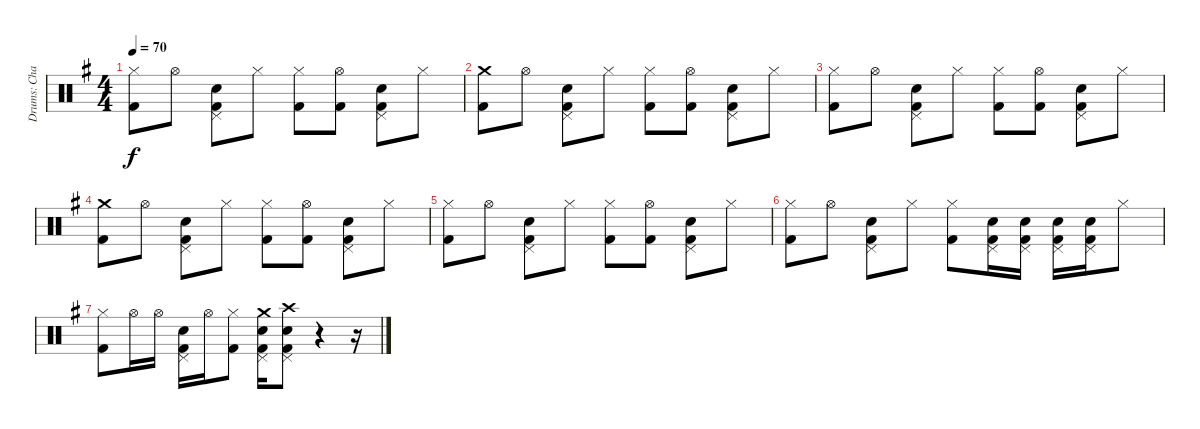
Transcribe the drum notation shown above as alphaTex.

\track ("Drums: Charlie Allen Martin" "Drums: Cha") {instrument percussion}
\staff {score}
\articulation defaults
\ts (4 4)
\tempo 70
\clef neutral
\ks g
("Hi-Hat (closed)" "Kick (hit) 2").8{dy f} "Hi-Hat (open)".8 ("Pedal Hi-Hat (hit)" "Snare (hit) 2" "Kick (hit) 2").8 "Hi-Hat (closed)".8 ("Hi-Hat (closed)" "Kick (hit) 2").8 ("Hi-Hat (open)" "Kick (hit) 2").8 ("Pedal Hi-Hat (hit)" "Snare (hit) 2" "Kick (hit) 2").8 "Hi-Hat (closed)".8 |
("Crash medium (hit)" "Kick (hit) 2").8 "Hi-Hat (open)".8 ("Pedal Hi-Hat (hit)" "Snare (hit) 2" "Kick (hit) 2").8 "Hi-Hat (closed)".8 ("Hi-Hat (closed)" "Kick (hit) 2").8 ("Hi-Hat (open)" "Kick (hit) 2").8 ("Pedal Hi-Hat (hit)" "Snare (hit) 2" "Kick (hit) 2").8 "Hi-Hat (closed)".8 |
("Hi-Hat (closed)" "Kick (hit) 2").8 "Hi-Hat (open)".8 ("Pedal Hi-Hat (hit)" "Snare (hit) 2" "Kick (hit) 2").8 "Hi-Hat (closed)".8 ("Hi-Hat (closed)" "Kick (hit) 2").8 ("Hi-Hat (open)" "Kick (hit) 2").8 ("Pedal Hi-Hat (hit)" "Snare (hit) 2" "Kick (hit) 2").8 "Hi-Hat (closed)".8 |
("Crash medium (hit)" "Kick (hit) 2").8 "Hi-Hat (open)".8 ("Pedal Hi-Hat (hit)" "Snare (hit) 2" "Kick (hit) 2").8 "Hi-Hat (closed)".8 ("Hi-Hat (closed)" "Kick (hit) 2").8 ("Hi-Hat (open)" "Kick (hit) 2").8 ("Pedal Hi-Hat (hit)" "Snare (hit) 2" "Kick (hit) 2").8 "Hi-Hat (closed)".8 |
("Hi-Hat (closed)" "Kick (hit) 2").8 "Hi-Hat (open)".8 ("Pedal Hi-Hat (hit)" "Snare (hit) 2" "Kick (hit) 2").8 "Hi-Hat (closed)".8 ("Hi-Hat (closed)" "Kick (hit) 2").8 ("Hi-Hat (open)" "Kick (hit) 2").8 ("Pedal Hi-Hat (hit)" "Snare (hit) 2" "Kick (hit) 2").8 "Hi-Hat (closed)".8 |
("Hi-Hat (closed)" "Kick (hit) 2").8 "Hi-Hat (open)".8 ("Pedal Hi-Hat (hit)" "Snare (hit) 2" "Kick (hit) 2").8 "Hi-Hat (closed)".8 ("Hi-Hat (closed)" "Kick (hit) 2").8 ("Pedal Hi-Hat (hit)" "Snare (hit) 2" "Kick (hit) 2").16 ("Pedal Hi-Hat (hit)" "Snare (hit) 2" "Kick (hit) 2").16 ("Pedal Hi-Hat (hit)" "Snare (hit) 2" "Kick (hit) 2").16 ("Pedal Hi-Hat (hit)" "Snare (hit) 2" "Kick (hit) 2").16 "Hi-Hat (closed)".8 |
("Hi-Hat (closed)" "Kick (hit) 2").8 "Hi-Hat (open)".16 "Hi-Hat (open)".16 ("Pedal Hi-Hat (hit)" "Snare (hit) 2" "Kick (hit) 2").16 "Hi-Hat (open)".16 ("Hi-Hat (closed)" "Kick (hit) 2").8 ("Crash medium (hit)" "Pedal Hi-Hat (hit)" "Snare (hit) 2" "Kick (hit) 2").16 ("Crash high (hit)" "Pedal Hi-Hat (hit)" "Snare (hit) 2" "Kick (hit) 2").8 r.4 r.16
